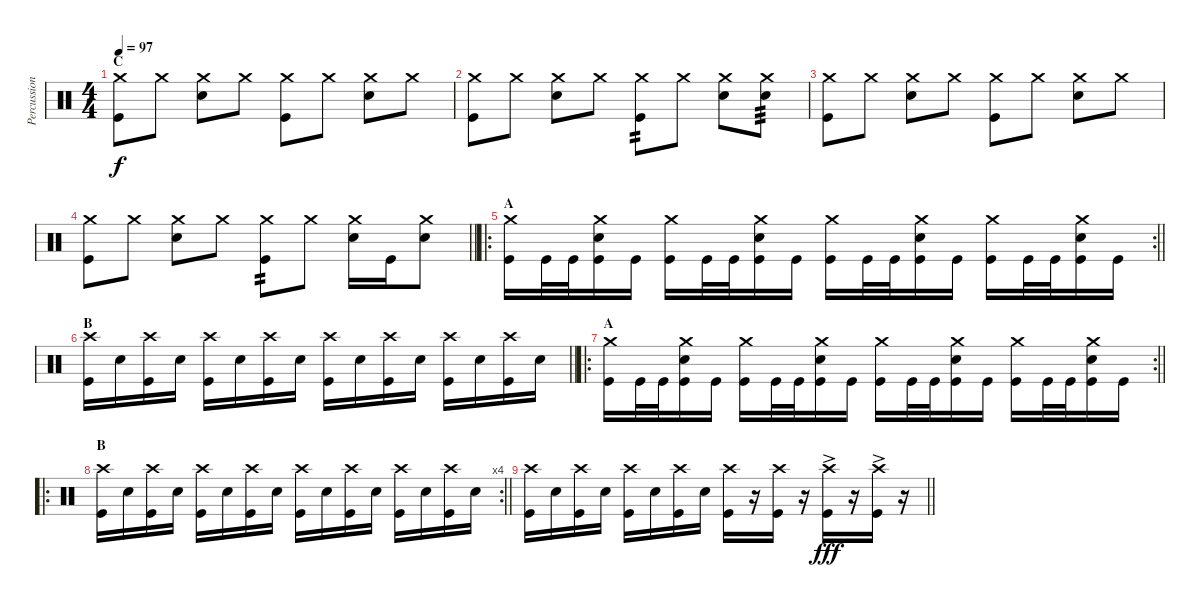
\track ("Percussion" "Percussion") {instrument percussion}
\staff {score}
\articulation defaults
\ts (4 4)
\section ("" "C")
\tempo 97
\clef neutral
\ks c
("Kick (hit)" "Crash medium (hit)").8{dy f} "Crash medium (hit)".8 ("Snare (hit) 2" "Crash medium (hit)").8 "Crash medium (hit)".8 ("Kick (hit)" "Crash medium (hit)").8 "Crash medium (hit)".8 ("Snare (hit) 2" "Crash medium (hit)").8 "Crash medium (hit)".8 |
("Kick (hit)" "Crash medium (hit)").8 "Crash medium (hit)".8 ("Snare (hit) 2" "Crash medium (hit)").8 "Crash medium (hit)".8 ("Kick (hit)" "Crash medium (hit)").8{tp 2} "Crash medium (hit)".8 ("Snare (hit) 2" "Crash medium (hit)").8 ("Snare (hit) 2" "Crash medium (hit)").8{tp 3} |
("Kick (hit)" "Crash medium (hit)").8 "Crash medium (hit)".8 ("Snare (hit) 2" "Crash medium (hit)").8 "Crash medium (hit)".8 ("Kick (hit)" "Crash medium (hit)").8 "Crash medium (hit)".8 ("Snare (hit) 2" "Crash medium (hit)").8 "Crash medium (hit)".8 |
\barLineRight lightlight
("Kick (hit)" "Crash medium (hit)").8 "Crash medium (hit)".8 ("Snare (hit) 2" "Crash medium (hit)").8 "Crash medium (hit)".8 ("Kick (hit)" "Crash medium (hit)").8{tp 2} "Crash medium (hit)".8 ("Snare (hit) 2" "Crash medium (hit)").16 "Kick (hit)".16 ("Snare (hit) 2" "Crash medium (hit)").8 |
\ro
\rc 2
\section ("" "A")
\barLineRight lightlight
("Kick (hit)" "Crash medium (hit)").16 "Kick (hit)".32 "Kick (hit)".32 ("Kick (hit)" "Snare (hit) 2" "Crash medium (hit)").16 "Kick (hit)".16 ("Kick (hit)" "Crash medium (hit)").16 "Kick (hit)".32 "Kick (hit)".32 ("Kick (hit)" "Snare (hit) 2" "Crash medium (hit)").16 "Kick (hit)".16 ("Kick (hit)" "Crash medium (hit)").16 "Kick (hit)".32 "Kick (hit)".32 ("Kick (hit)" "Snare (hit) 2" "Crash medium (hit)").16 "Kick (hit)".16 ("Kick (hit)" "Crash medium (hit)").16 "Kick (hit)".32 "Kick (hit)".32 ("Kick (hit)" "Snare (hit) 2" "Crash medium (hit)").16 "Kick (hit)".16 |
\section ("" "B")
\barLineRight lightlight
("Kick (hit)" "Crash high (hit)").16 "Snare (hit) 2".16 ("Kick (hit)" "Crash high (hit)").16 "Snare (hit) 2".16 ("Kick (hit)" "Crash high (hit)").16 "Snare (hit) 2".16 ("Kick (hit)" "Crash high (hit)").16 "Snare (hit) 2".16 ("Kick (hit)" "Crash high (hit)").16 "Snare (hit) 2".16 ("Kick (hit)" "Crash high (hit)").16 "Snare (hit) 2".16 ("Kick (hit)" "Crash high (hit)").16 "Snare (hit) 2".16 ("Kick (hit)" "Crash high (hit)").16 "Snare (hit) 2".16 |
\ro
\rc 2
\section ("" "A")
\barLineRight lightlight
("Kick (hit)" "Crash medium (hit)").16 "Kick (hit)".32 "Kick (hit)".32 ("Kick (hit)" "Snare (hit) 2" "Crash medium (hit)").16 "Kick (hit)".16 ("Kick (hit)" "Crash medium (hit)").16 "Kick (hit)".32 "Kick (hit)".32 ("Kick (hit)" "Snare (hit) 2" "Crash medium (hit)").16 "Kick (hit)".16 ("Kick (hit)" "Crash medium (hit)").16 "Kick (hit)".32 "Kick (hit)".32 ("Kick (hit)" "Snare (hit) 2" "Crash medium (hit)").16 "Kick (hit)".16 ("Kick (hit)" "Crash medium (hit)").16 "Kick (hit)".32 "Kick (hit)".32 ("Kick (hit)" "Snare (hit) 2" "Crash medium (hit)").16 "Kick (hit)".16 |
\ro
\rc 4
\section ("" "B")
\barLineRight lightlight
("Kick (hit)" "Crash high (hit)").16 "Snare (hit) 2".16 ("Kick (hit)" "Crash high (hit)").16 "Snare (hit) 2".16 ("Kick (hit)" "Crash high (hit)").16 "Snare (hit) 2".16 ("Kick (hit)" "Crash high (hit)").16 "Snare (hit) 2".16 ("Kick (hit)" "Crash high (hit)").16 "Snare (hit) 2".16 ("Kick (hit)" "Crash high (hit)").16 "Snare (hit) 2".16 ("Kick (hit)" "Crash high (hit)").16 "Snare (hit) 2".16 ("Kick (hit)" "Crash high (hit)").16 "Snare (hit) 2".16 |
\barLineRight lightlight
("Kick (hit)" "Crash high (hit)").16 "Snare (hit) 2".16 ("Kick (hit)" "Crash high (hit)").16 "Snare (hit) 2".16 ("Kick (hit)" "Crash high (hit)").16 "Snare (hit) 2".16 ("Kick (hit)" "Crash high (hit)").16 "Snare (hit) 2".16 ("Kick (hit)" "Crash high (hit)").16 r.16 ("Kick (hit)" "Crash high (hit)").16 r.16 ("Kick (hit)" "Crash high (hit)"{ac}).16{dy fff} r.16 ("Kick (hit)" "Crash high (hit)"{ac}).16 r.16
